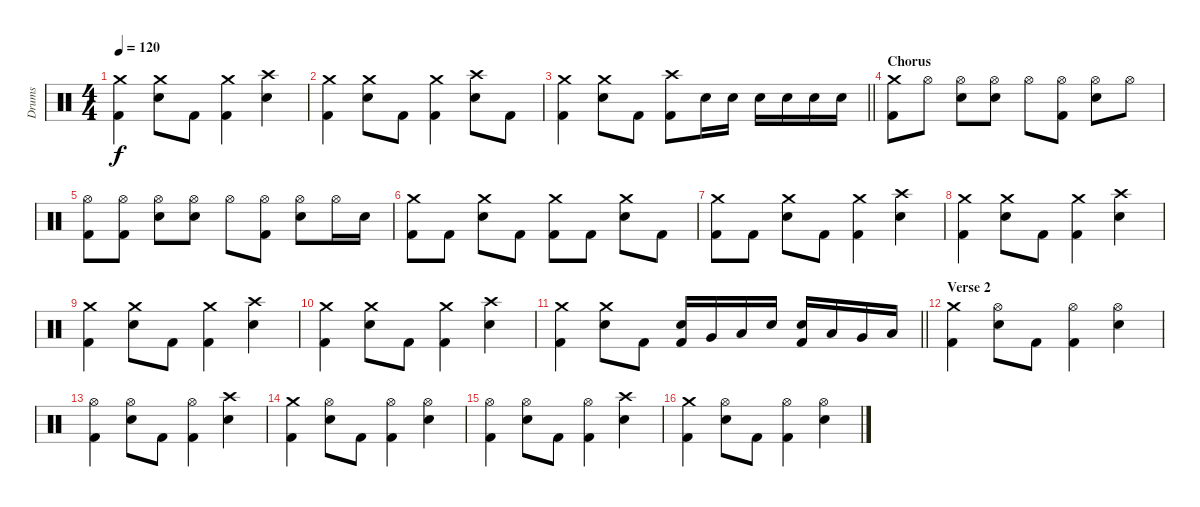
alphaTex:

\track ("Drums" "Drums") {instrument percussion}
\staff {score}
\articulation defaults
\ts (4 4)
\tempo 120
\clef neutral
\ks c
("Crash medium (hit)" "Kick (hit) 2").4{dy f} ("Crash medium (hit)" "Electric Snare (hit)").8 "Kick (hit) 2".8 ("Crash medium (hit)" "Kick (hit) 2").4 ("Crash high (hit)" "Electric Snare (hit)").4 |
("Crash medium (hit)" "Kick (hit) 2").4 ("Crash medium (hit)" "Electric Snare (hit)").8 "Kick (hit) 2".8 ("Crash medium (hit)" "Kick (hit) 2").4 ("Crash high (hit)" "Electric Snare (hit)").8 "Kick (hit) 2".8 |
\barLineRight lightlight
("Crash medium (hit)" "Kick (hit) 2").4 ("Crash medium (hit)" "Electric Snare (hit)").8 "Kick (hit) 2".8 ("Crash high (hit)" "Kick (hit) 2").8 "Electric Snare (hit)".16 "Electric Snare (hit)".16 "Electric Snare (hit)".16 "Electric Snare (hit)".16 "Electric Snare (hit)".16 "Electric Snare (hit)".16 |
\section ("" "Chorus")
("Crash medium (hit)" "Kick (hit) 2").8 "Hi-Hat (open)".8 ("Hi-Hat (open)" "Electric Snare (hit)").8 ("Hi-Hat (open)" "Electric Snare (hit)").8 "Hi-Hat (open)".8 ("Hi-Hat (open)" "Kick (hit) 2").8 ("Hi-Hat (open)" "Electric Snare (hit)").8 "Hi-Hat (open)".8 |
("Hi-Hat (open)" "Kick (hit) 2").8 ("Hi-Hat (open)" "Kick (hit) 2").8 ("Hi-Hat (open)" "Electric Snare (hit)").8 ("Hi-Hat (open)" "Electric Snare (hit)").8 "Hi-Hat (open)".8 ("Hi-Hat (open)" "Kick (hit) 2").8 ("Hi-Hat (open)" "Electric Snare (hit)").8 "Hi-Hat (open)".16 "Electric Snare (hit)".16 |
("Crash medium (hit)" "Kick (hit) 2").8 "Kick (hit) 2".8 ("Crash medium (hit)" "Electric Snare (hit)").8 "Kick (hit) 2".8 ("Crash medium (hit)" "Kick (hit) 2").8 "Kick (hit) 2".8 ("Crash medium (hit)" "Electric Snare (hit)").8 "Kick (hit) 2".8 |
("Crash medium (hit)" "Kick (hit) 2").8 "Kick (hit) 2".8 ("Crash medium (hit)" "Electric Snare (hit)").8 "Kick (hit) 2".8 ("Crash medium (hit)" "Kick (hit) 2").4 ("Crash high (hit)" "Electric Snare (hit)").4 |
("Crash medium (hit)" "Kick (hit) 2").4 ("Crash medium (hit)" "Electric Snare (hit)").8 "Kick (hit) 2".8 ("Crash medium (hit)" "Kick (hit) 2").4 ("Crash high (hit)" "Electric Snare (hit)").4 |
("Crash medium (hit)" "Kick (hit) 2").4 ("Crash medium (hit)" "Electric Snare (hit)").8 "Kick (hit) 2".8 ("Crash medium (hit)" "Kick (hit) 2").4 ("Crash high (hit)" "Electric Snare (hit)").4 |
("Crash medium (hit)" "Kick (hit) 2").4 ("Crash medium (hit)" "Electric Snare (hit)").8 "Kick (hit) 2".8 ("Crash medium (hit)" "Kick (hit) 2").4 ("Crash high (hit)" "Electric Snare (hit)").4 |
\barLineRight lightlight
("Crash medium (hit)" "Kick (hit) 2").4 ("Crash medium (hit)" "Electric Snare (hit)").8 "Kick (hit) 2".8 ("Electric Snare (hit)" "Kick (hit) 2").16 "Very Low Tom (hit)".16 "Low Floor Tom (hit)".16 "Electric Snare (hit)".16 ("Electric Snare (hit)" "Kick (hit) 2").16 "Low Tom (hit)".16 "Very Low Tom (hit)".16 "Low Floor Tom (hit)".16 |
\section ("" "Verse 2")
("Crash medium (hit)" "Kick (hit) 2").4 ("Hi-Hat (open)" "Electric Snare (hit)").8 "Kick (hit) 2".8 ("Hi-Hat (open)" "Kick (hit) 2").4 ("Hi-Hat (open)" "Electric Snare (hit)").4 |
("Hi-Hat (open)" "Kick (hit) 2").4 ("Hi-Hat (open)" "Electric Snare (hit)").8 "Kick (hit) 2".8 ("Hi-Hat (open)" "Kick (hit) 2").4 ("Crash high (hit)" "Electric Snare (hit)").4 |
("Crash medium (hit)" "Kick (hit) 2").4 ("Hi-Hat (open)" "Electric Snare (hit)").8 "Kick (hit) 2".8 ("Hi-Hat (open)" "Kick (hit) 2").4 ("Hi-Hat (open)" "Electric Snare (hit)").4 |
("Hi-Hat (open)" "Kick (hit) 2").4 ("Hi-Hat (open)" "Electric Snare (hit)").8 "Kick (hit) 2".8 ("Hi-Hat (open)" "Kick (hit) 2").4 ("Crash high (hit)" "Electric Snare (hit)").4 |
("Crash medium (hit)" "Kick (hit) 2").4 ("Hi-Hat (open)" "Electric Snare (hit)").8 "Kick (hit) 2".8 ("Hi-Hat (open)" "Kick (hit) 2").4 ("Hi-Hat (open)" "Electric Snare (hit)").4
